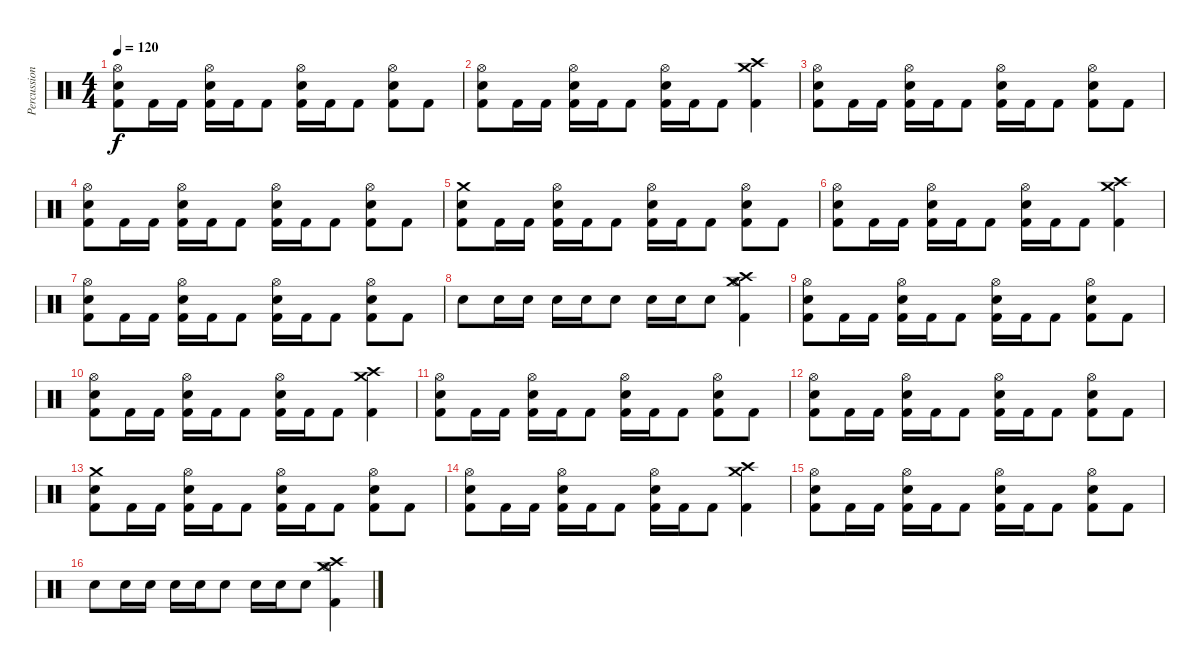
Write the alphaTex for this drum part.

\track ("Percussion" "Percussion") {instrument percussion}
\staff {score}
\articulation defaults
\ts (4 4)
\tempo 120
\clef neutral
\ks c
("Kick (hit) 2" "Snare (hit) 2" "Hi-Hat (open)").8{dy f} "Kick (hit) 2".16 "Kick (hit) 2".16 ("Kick (hit) 2" "Snare (hit) 2" "Hi-Hat (open)").16 "Kick (hit) 2".16 "Kick (hit) 2".8 ("Kick (hit) 2" "Snare (hit) 2" "Hi-Hat (open)").16 "Kick (hit) 2".16 "Kick (hit) 2".8 ("Kick (hit) 2" "Snare (hit) 2" "Hi-Hat (open)").8 "Kick (hit) 2".8 |
("Kick (hit) 2" "Snare (hit) 2" "Hi-Hat (open)").8 "Kick (hit) 2".16 "Kick (hit) 2".16 ("Kick (hit) 2" "Snare (hit) 2" "Hi-Hat (open)").16 "Kick (hit) 2".16 "Kick (hit) 2".8 ("Kick (hit) 2" "Snare (hit) 2" "Hi-Hat (open)").16 "Kick (hit) 2".16 "Kick (hit) 2".8 ("Kick (hit) 2" "Crash high (hit)" "Crash medium (hit)").4 |
("Kick (hit) 2" "Snare (hit) 2" "Hi-Hat (open)").8 "Kick (hit) 2".16 "Kick (hit) 2".16 ("Kick (hit) 2" "Snare (hit) 2" "Hi-Hat (open)").16 "Kick (hit) 2".16 "Kick (hit) 2".8 ("Kick (hit) 2" "Snare (hit) 2" "Hi-Hat (open)").16 "Kick (hit) 2".16 "Kick (hit) 2".8 ("Kick (hit) 2" "Snare (hit) 2" "Hi-Hat (open)").8 "Kick (hit) 2".8 |
("Kick (hit) 2" "Snare (hit) 2" "Hi-Hat (open)").8 "Kick (hit) 2".16 "Kick (hit) 2".16 ("Kick (hit) 2" "Snare (hit) 2" "Hi-Hat (open)").16 "Kick (hit) 2".16 "Kick (hit) 2".8 ("Kick (hit) 2" "Snare (hit) 2" "Hi-Hat (open)").16 "Kick (hit) 2".16 "Kick (hit) 2".8 ("Kick (hit) 2" "Snare (hit) 2" "Hi-Hat (open)").8 "Kick (hit) 2".8 |
("Kick (hit) 2" "Snare (hit) 2" "Crash medium (hit)").8 "Kick (hit) 2".16 "Kick (hit) 2".16 ("Kick (hit) 2" "Snare (hit) 2" "Hi-Hat (open)").16 "Kick (hit) 2".16 "Kick (hit) 2".8 ("Kick (hit) 2" "Snare (hit) 2" "Hi-Hat (open)").16 "Kick (hit) 2".16 "Kick (hit) 2".8 ("Kick (hit) 2" "Snare (hit) 2" "Hi-Hat (open)").8 "Kick (hit) 2".8 |
("Kick (hit) 2" "Snare (hit) 2" "Hi-Hat (open)").8 "Kick (hit) 2".16 "Kick (hit) 2".16 ("Kick (hit) 2" "Snare (hit) 2" "Hi-Hat (open)").16 "Kick (hit) 2".16 "Kick (hit) 2".8 ("Kick (hit) 2" "Snare (hit) 2" "Hi-Hat (open)").16 "Kick (hit) 2".16 "Kick (hit) 2".8 ("Kick (hit) 2" "Crash high (hit)" "Crash medium (hit)").4 |
("Kick (hit) 2" "Snare (hit) 2" "Hi-Hat (open)").8 "Kick (hit) 2".16 "Kick (hit) 2".16 ("Kick (hit) 2" "Snare (hit) 2" "Hi-Hat (open)").16 "Kick (hit) 2".16 "Kick (hit) 2".8 ("Kick (hit) 2" "Snare (hit) 2" "Hi-Hat (open)").16 "Kick (hit) 2".16 "Kick (hit) 2".8 ("Kick (hit) 2" "Snare (hit) 2" "Hi-Hat (open)").8 "Kick (hit) 2".8 |
"Snare (hit) 2".8 "Snare (hit) 2".16 "Snare (hit) 2".16 "Snare (hit) 2".16 "Snare (hit) 2".16 "Snare (hit) 2".8 "Snare (hit) 2".16 "Snare (hit) 2".16 "Snare (hit) 2".8 ("Hi-Hat (open)" "Kick (hit) 2" "Crash medium (hit)" "Crash high (hit)").4 |
("Kick (hit) 2" "Snare (hit) 2" "Hi-Hat (open)").8 "Kick (hit) 2".16 "Kick (hit) 2".16 ("Kick (hit) 2" "Snare (hit) 2" "Hi-Hat (open)").16 "Kick (hit) 2".16 "Kick (hit) 2".8 ("Kick (hit) 2" "Snare (hit) 2" "Hi-Hat (open)").16 "Kick (hit) 2".16 "Kick (hit) 2".8 ("Kick (hit) 2" "Snare (hit) 2" "Hi-Hat (open)").8 "Kick (hit) 2".8 |
("Kick (hit) 2" "Snare (hit) 2" "Hi-Hat (open)").8 "Kick (hit) 2".16 "Kick (hit) 2".16 ("Kick (hit) 2" "Snare (hit) 2" "Hi-Hat (open)").16 "Kick (hit) 2".16 "Kick (hit) 2".8 ("Kick (hit) 2" "Snare (hit) 2" "Hi-Hat (open)").16 "Kick (hit) 2".16 "Kick (hit) 2".8 ("Kick (hit) 2" "Crash high (hit)" "Crash medium (hit)").4 |
("Kick (hit) 2" "Snare (hit) 2" "Hi-Hat (open)").8 "Kick (hit) 2".16 "Kick (hit) 2".16 ("Kick (hit) 2" "Snare (hit) 2" "Hi-Hat (open)").16 "Kick (hit) 2".16 "Kick (hit) 2".8 ("Kick (hit) 2" "Snare (hit) 2" "Hi-Hat (open)").16 "Kick (hit) 2".16 "Kick (hit) 2".8 ("Kick (hit) 2" "Snare (hit) 2" "Hi-Hat (open)").8 "Kick (hit) 2".8 |
("Kick (hit) 2" "Snare (hit) 2" "Hi-Hat (open)").8 "Kick (hit) 2".16 "Kick (hit) 2".16 ("Kick (hit) 2" "Snare (hit) 2" "Hi-Hat (open)").16 "Kick (hit) 2".16 "Kick (hit) 2".8 ("Kick (hit) 2" "Snare (hit) 2" "Hi-Hat (open)").16 "Kick (hit) 2".16 "Kick (hit) 2".8 ("Kick (hit) 2" "Snare (hit) 2" "Hi-Hat (open)").8 "Kick (hit) 2".8 |
("Kick (hit) 2" "Snare (hit) 2" "Crash medium (hit)").8 "Kick (hit) 2".16 "Kick (hit) 2".16 ("Kick (hit) 2" "Snare (hit) 2" "Hi-Hat (open)").16 "Kick (hit) 2".16 "Kick (hit) 2".8 ("Kick (hit) 2" "Snare (hit) 2" "Hi-Hat (open)").16 "Kick (hit) 2".16 "Kick (hit) 2".8 ("Kick (hit) 2" "Snare (hit) 2" "Hi-Hat (open)").8 "Kick (hit) 2".8 |
("Kick (hit) 2" "Snare (hit) 2" "Hi-Hat (open)").8 "Kick (hit) 2".16 "Kick (hit) 2".16 ("Kick (hit) 2" "Snare (hit) 2" "Hi-Hat (open)").16 "Kick (hit) 2".16 "Kick (hit) 2".8 ("Kick (hit) 2" "Snare (hit) 2" "Hi-Hat (open)").16 "Kick (hit) 2".16 "Kick (hit) 2".8 ("Kick (hit) 2" "Crash high (hit)" "Crash medium (hit)").4 |
("Kick (hit) 2" "Snare (hit) 2" "Hi-Hat (open)").8 "Kick (hit) 2".16 "Kick (hit) 2".16 ("Kick (hit) 2" "Snare (hit) 2" "Hi-Hat (open)").16 "Kick (hit) 2".16 "Kick (hit) 2".8 ("Kick (hit) 2" "Snare (hit) 2" "Hi-Hat (open)").16 "Kick (hit) 2".16 "Kick (hit) 2".8 ("Kick (hit) 2" "Snare (hit) 2" "Hi-Hat (open)").8 "Kick (hit) 2".8 |
"Snare (hit) 2".8 "Snare (hit) 2".16 "Snare (hit) 2".16 "Snare (hit) 2".16 "Snare (hit) 2".16 "Snare (hit) 2".8 "Snare (hit) 2".16 "Snare (hit) 2".16 "Snare (hit) 2".8 ("Hi-Hat (open)" "Kick (hit) 2" "Crash medium (hit)" "Crash high (hit)").4
